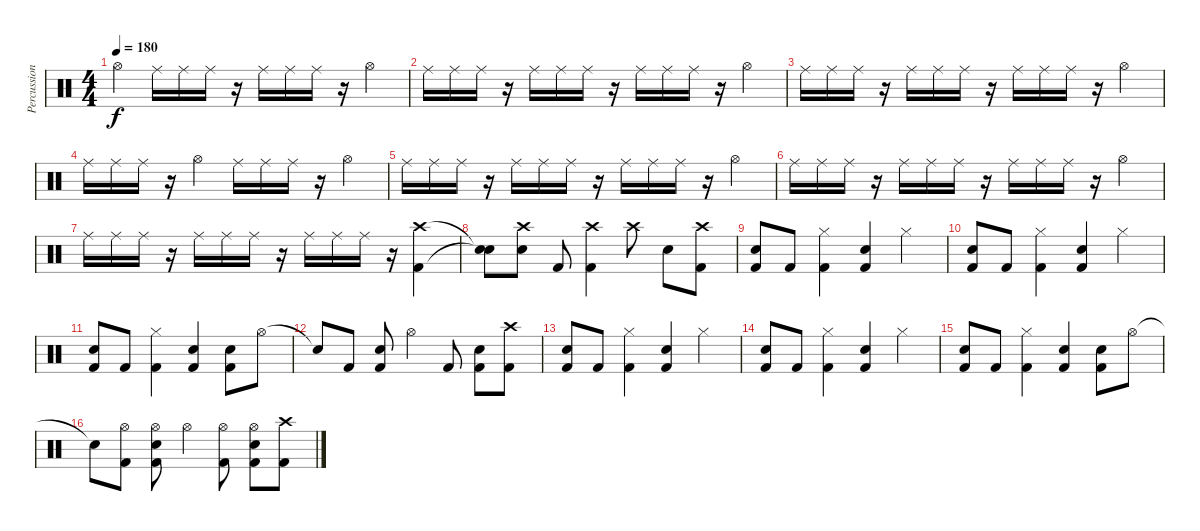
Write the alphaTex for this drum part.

\track ("Percussion" "Percussion") {instrument percussion}
\staff {score}
\articulation defaults
\ts (4 4)
\tempo 180
\clef neutral
\ks c "Hi-Hat (open)".4{dy f} "Ride (middle)".16 "Ride (middle)".16 "Ride (middle)".16
r.16 "Ride (middle)".16 "Ride (middle)".16 "Ride (middle)".16 r.16 "Hi-Hat (open)".4 |
"Ride (middle)".16 "Ride (middle)".16 "Ride (middle)".16 r.16 "Ride (middle)".16 "Ride (middle)".16 "Ride (middle)".16 r.16 "Ride (middle)".16 "Ride (middle)".16 "Ride (middle)".16 r.16 "Hi-Hat (open)".4 |
"Ride (middle)".16 "Ride (middle)".16 "Ride (middle)".16 r.16 "Ride (middle)".16 "Ride (middle)".16 "Ride (middle)".16 r.16 "Ride (middle)".16 "Ride (middle)".16 "Ride (middle)".16 r.16 "Hi-Hat (open)".4 |
"Ride (middle)".16 "Ride (middle)".16 "Ride (middle)".16 r.16 "Hi-Hat (open)".4 "Ride (middle)".16 "Ride (middle)".16 "Ride (middle)".16 r.16 "Hi-Hat (open)".4 |
"Ride (middle)".16 "Ride (middle)".16 "Ride (middle)".16 r.16 "Ride (middle)".16 "Ride (middle)".16 "Ride (middle)".16 r.16 "Ride (middle)".16 "Ride (middle)".16 "Ride (middle)".16 r.16 "Hi-Hat (open)".4 |
"Ride (middle)".16 "Ride (middle)".16 "Ride (middle)".16 r.16 "Ride (middle)".16 "Ride (middle)".16 "Ride (middle)".16 r.16 "Ride (middle)".16 "Ride (middle)".16 "Ride (middle)".16 r.16 "Hi-Hat (open)".4 |
"Ride (middle)".16 "Ride (middle)".16 "Ride (middle)".16 r.16 "Ride (middle)".16 "Ride (middle)".16 "Ride (middle)".16 r.16 "Ride (middle)".16 "Ride (middle)".16 "Ride (middle)".16 r.16 ("Crash high (hit)" "Kick (hit) 2").4 |
("Snare (hit)"{t} "Snare (hit)"{t}).8 ("Crash high (hit)" "Snare (hit) 2").8 "Kick (hit) 2".8 ("Crash high (hit)" "Kick (hit) 2").4 "Crash high (hit)".8 "Snare (hit) 2".8 ("Crash high (hit)" "Kick (hit) 2").8 |
("Snare (hit) 2" "Kick (hit) 2").8 "Kick (hit) 2".8 ("Hi-Hat (closed)" "Kick (hit) 2").4 ("Snare (hit) 2" "Kick (hit) 2").4 "Hi-Hat (closed)".4 |
("Snare (hit) 2" "Kick (hit) 2").8 "Kick (hit) 2".8 ("Hi-Hat (closed)" "Kick (hit) 2").4 ("Snare (hit) 2" "Kick (hit) 2").4 "Hi-Hat (closed)".4 |
("Snare (hit) 2" "Kick (hit) 2").8 "Kick (hit) 2".8 ("Hi-Hat (closed)" "Kick (hit) 2").4 ("Snare (hit) 2" "Kick (hit) 2").4 ("Snare (hit) 2" "Kick (hit) 2").8 "Hi-Hat (open)".8 |
"Snare (hit)"{t}.8 "Kick (hit) 2".8 ("Snare (hit) 2" "Kick (hit) 2").8 "Hi-Hat (open)".4 "Kick (hit) 2".8 ("Snare (hit) 2" "Kick (hit) 2").8 ("Crash high (hit)" "Kick (hit) 2").8 |
("Snare (hit) 2" "Kick (hit) 2").8 "Kick (hit) 2".8 ("Hi-Hat (closed)" "Kick (hit) 2").4 ("Snare (hit) 2" "Kick (hit) 2").4 "Hi-Hat (closed)".4 |
("Snare (hit) 2" "Kick (hit) 2").8 "Kick (hit) 2".8 ("Hi-Hat (closed)" "Kick (hit) 2").4 ("Snare (hit) 2" "Kick (hit) 2").4 "Hi-Hat (closed)".4 |
("Snare (hit) 2" "Kick (hit) 2").8 "Kick (hit) 2".8 ("Hi-Hat (closed)" "Kick (hit) 2").4 ("Snare (hit) 2" "Kick (hit) 2").4 ("Snare (hit) 2" "Kick (hit) 2").8 "Hi-Hat (open)".8 |
"Snare (hit)"{t}.8 ("Hi-Hat (open)" "Kick (hit) 2").8 ("Hi-Hat (open)" "Snare (hit) 2" "Kick (hit) 2").8 "Hi-Hat (open)".4 ("Hi-Hat (open)" "Kick (hit) 2").8 ("Hi-Hat (open)" "Snare (hit) 2" "Kick (hit) 2").8 ("Crash high (hit)" "Kick (hit) 2").8
